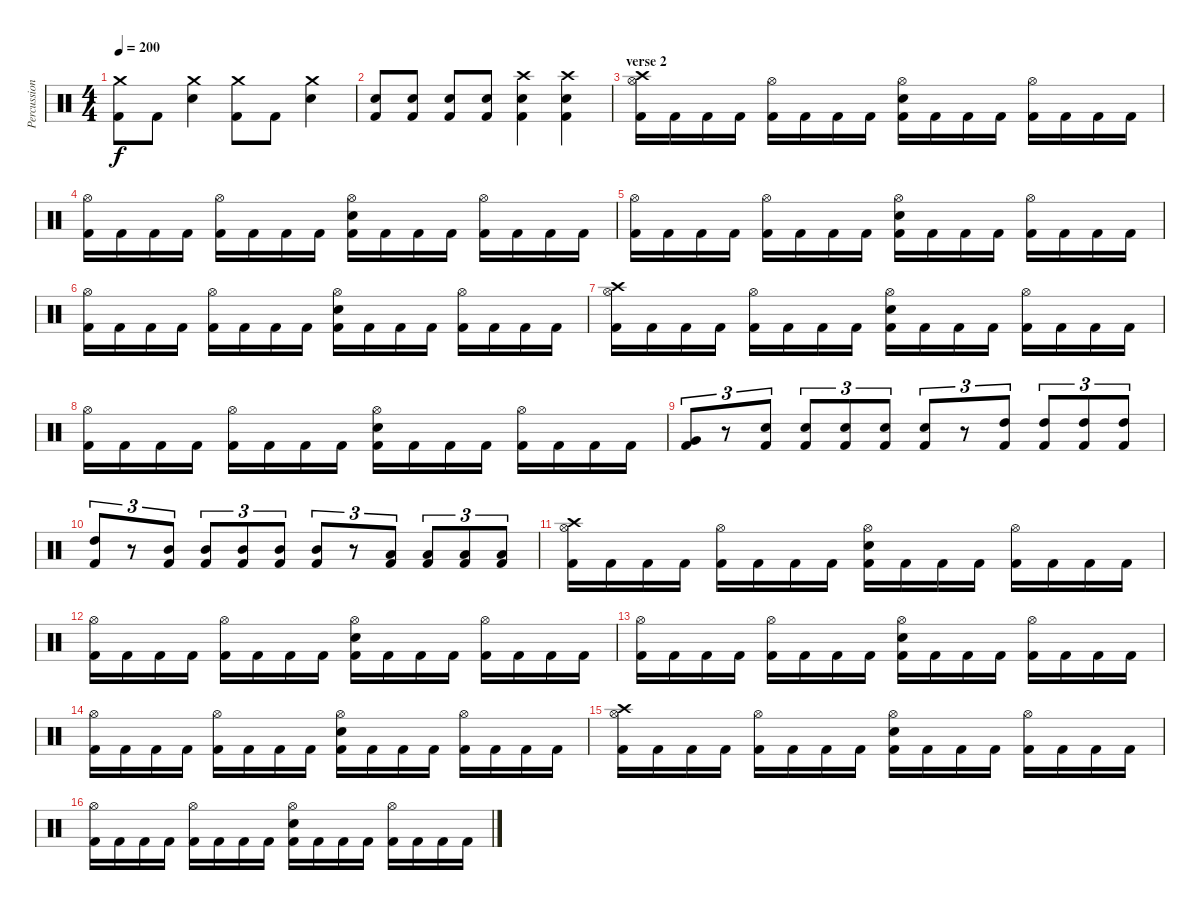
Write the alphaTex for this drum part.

\track ("Percussions" "Percussion") {instrument percussion}
\staff {score}
\articulation defaults
\ts (4 4)
\tempo 200
\clef neutral
\ks c
("Crash medium (hit)" "Kick (hit) 2").8{dy f} "Kick (hit) 2".8 ("Crash medium (hit)" "Electric Snare (hit)").4 ("Crash medium (hit)" "Kick (hit) 2").8 "Kick (hit) 2".8 ("Crash medium (hit)" "Electric Snare (hit)").4 |
("Electric Snare (hit)" "Kick (hit) 2").8 ("Electric Snare (hit)" "Kick (hit) 2").8 ("Electric Snare (hit)" "Kick (hit) 2").8 ("Electric Snare (hit)" "Kick (hit) 2").8 ("Crash high (hit)" "Electric Snare (hit)" "Kick (hit) 2").4 ("Crash high (hit)" "Electric Snare (hit)" "Kick (hit) 2").4 |
\section ("" "verse 2")
("Crash high (hit)" "Hi-Hat (open)" "Kick (hit) 2").16 "Kick (hit) 2".16 "Kick (hit) 2".16 "Kick (hit) 2".16 ("Hi-Hat (open)" "Kick (hit) 2").16 "Kick (hit) 2".16 "Kick (hit) 2".16 "Kick (hit) 2".16 ("Hi-Hat (open)" "Electric Snare (hit)" "Kick (hit) 2").16 "Kick (hit) 2".16 "Kick (hit) 2".16 "Kick (hit) 2".16 ("Hi-Hat (open)" "Kick (hit) 2").16 "Kick (hit) 2".16 "Kick (hit) 2".16 "Kick (hit) 2".16 |
("Hi-Hat (open)" "Kick (hit) 2").16 "Kick (hit) 2".16 "Kick (hit) 2".16 "Kick (hit) 2".16 ("Hi-Hat (open)" "Kick (hit) 2").16 "Kick (hit) 2".16 "Kick (hit) 2".16 "Kick (hit) 2".16 ("Hi-Hat (open)" "Electric Snare (hit)" "Kick (hit) 2").16 "Kick (hit) 2".16 "Kick (hit) 2".16 "Kick (hit) 2".16 ("Hi-Hat (open)" "Kick (hit) 2").16 "Kick (hit) 2".16 "Kick (hit) 2".16 "Kick (hit) 2".16 |
("Hi-Hat (open)" "Kick (hit) 2").16 "Kick (hit) 2".16 "Kick (hit) 2".16 "Kick (hit) 2".16 ("Hi-Hat (open)" "Kick (hit) 2").16 "Kick (hit) 2".16 "Kick (hit) 2".16 "Kick (hit) 2".16 ("Hi-Hat (open)" "Electric Snare (hit)" "Kick (hit) 2").16 "Kick (hit) 2".16 "Kick (hit) 2".16 "Kick (hit) 2".16 ("Hi-Hat (open)" "Kick (hit) 2").16 "Kick (hit) 2".16 "Kick (hit) 2".16 "Kick (hit) 2".16 |
("Hi-Hat (open)" "Kick (hit) 2").16 "Kick (hit) 2".16 "Kick (hit) 2".16 "Kick (hit) 2".16 ("Hi-Hat (open)" "Kick (hit) 2").16 "Kick (hit) 2".16 "Kick (hit) 2".16 "Kick (hit) 2".16 ("Hi-Hat (open)" "Electric Snare (hit)" "Kick (hit) 2").16 "Kick (hit) 2".16 "Kick (hit) 2".16 "Kick (hit) 2".16 ("Hi-Hat (open)" "Kick (hit) 2").16 "Kick (hit) 2".16 "Kick (hit) 2".16 "Kick (hit) 2".16 |
("Crash high (hit)" "Hi-Hat (open)" "Kick (hit) 2").16 "Kick (hit) 2".16 "Kick (hit) 2".16 "Kick (hit) 2".16 ("Hi-Hat (open)" "Kick (hit) 2").16 "Kick (hit) 2".16 "Kick (hit) 2".16 "Kick (hit) 2".16 ("Hi-Hat (open)" "Electric Snare (hit)" "Kick (hit) 2").16 "Kick (hit) 2".16 "Kick (hit) 2".16 "Kick (hit) 2".16 ("Hi-Hat (open)" "Kick (hit) 2").16 "Kick (hit) 2".16 "Kick (hit) 2".16 "Kick (hit) 2".16 |
("Hi-Hat (open)" "Kick (hit) 2").16 "Kick (hit) 2".16 "Kick (hit) 2".16 "Kick (hit) 2".16 ("Hi-Hat (open)" "Kick (hit) 2").16 "Kick (hit) 2".16 "Kick (hit) 2".16 "Kick (hit) 2".16 ("Hi-Hat (open)" "Electric Snare (hit)" "Kick (hit) 2").16 "Kick (hit) 2".16 "Kick (hit) 2".16 "Kick (hit) 2".16 ("Hi-Hat (open)" "Kick (hit) 2").16 "Kick (hit) 2".16 "Kick (hit) 2".16 "Kick (hit) 2".16 |
("Very Low Tom (hit)" "Kick (hit) 2").8{tu (3 2)} r.8{tu (3 2)} ("Electric Snare (hit)" "Kick (hit) 2").8{tu (3 2)} ("Electric Snare (hit)" "Kick (hit) 2").8{tu (3 2)} ("Electric Snare (hit)" "Kick (hit) 2").8{tu (3 2)} ("Electric Snare (hit)" "Kick (hit) 2").8{tu (3 2)} ("Electric Snare (hit)" "Kick (hit) 2").8{tu (3 2)} r.8{tu (3 2)} ("High Tom (hit)" "Kick (hit) 2").8{tu (3 2)} ("High Tom (hit)" "Kick (hit) 2").8{tu (3 2)} ("High Tom (hit)" "Kick (hit) 2").8{tu (3 2)} ("High Tom (hit)" "Kick (hit) 2").8{tu (3 2)} |
("High Tom (hit)" "Kick (hit) 2").8{tu (3 2)} r.8{tu (3 2)} ("Mid Tom (hit)" "Kick (hit) 2").8{tu (3 2)} ("Mid Tom (hit)" "Kick (hit) 2").8{tu (3 2)} ("Mid Tom (hit)" "Kick (hit) 2").8{tu (3 2)} ("Mid Tom (hit)" "Kick (hit) 2").8{tu (3 2)} ("Mid Tom (hit)" "Kick (hit) 2").8{tu (3 2)} r.8{tu (3 2)} ("Low Tom (hit)" "Kick (hit) 2").8{tu (3 2)} ("Low Tom (hit)" "Kick (hit) 2").8{tu (3 2)} ("Low Tom (hit)" "Kick (hit) 2").8{tu (3 2)} ("Low Tom (hit)" "Kick (hit) 2").8{tu (3 2)} |
("Crash high (hit)" "Hi-Hat (open)" "Kick (hit) 2").16 "Kick (hit) 2".16 "Kick (hit) 2".16 "Kick (hit) 2".16 ("Hi-Hat (open)" "Kick (hit) 2").16 "Kick (hit) 2".16 "Kick (hit) 2".16 "Kick (hit) 2".16 ("Hi-Hat (open)" "Electric Snare (hit)" "Kick (hit) 2").16 "Kick (hit) 2".16 "Kick (hit) 2".16 "Kick (hit) 2".16 ("Hi-Hat (open)" "Kick (hit) 2").16 "Kick (hit) 2".16 "Kick (hit) 2".16 "Kick (hit) 2".16 |
("Hi-Hat (open)" "Kick (hit) 2").16 "Kick (hit) 2".16 "Kick (hit) 2".16 "Kick (hit) 2".16 ("Hi-Hat (open)" "Kick (hit) 2").16 "Kick (hit) 2".16 "Kick (hit) 2".16 "Kick (hit) 2".16 ("Hi-Hat (open)" "Electric Snare (hit)" "Kick (hit) 2").16 "Kick (hit) 2".16 "Kick (hit) 2".16 "Kick (hit) 2".16 ("Hi-Hat (open)" "Kick (hit) 2").16 "Kick (hit) 2".16 "Kick (hit) 2".16 "Kick (hit) 2".16 |
("Hi-Hat (open)" "Kick (hit) 2").16 "Kick (hit) 2".16 "Kick (hit) 2".16 "Kick (hit) 2".16 ("Hi-Hat (open)" "Kick (hit) 2").16 "Kick (hit) 2".16 "Kick (hit) 2".16 "Kick (hit) 2".16 ("Hi-Hat (open)" "Electric Snare (hit)" "Kick (hit) 2").16 "Kick (hit) 2".16 "Kick (hit) 2".16 "Kick (hit) 2".16 ("Hi-Hat (open)" "Kick (hit) 2").16 "Kick (hit) 2".16 "Kick (hit) 2".16 "Kick (hit) 2".16 |
("Hi-Hat (open)" "Kick (hit) 2").16 "Kick (hit) 2".16 "Kick (hit) 2".16 "Kick (hit) 2".16 ("Hi-Hat (open)" "Kick (hit) 2").16 "Kick (hit) 2".16 "Kick (hit) 2".16 "Kick (hit) 2".16 ("Hi-Hat (open)" "Electric Snare (hit)" "Kick (hit) 2").16 "Kick (hit) 2".16 "Kick (hit) 2".16 "Kick (hit) 2".16 ("Hi-Hat (open)" "Kick (hit) 2").16 "Kick (hit) 2".16 "Kick (hit) 2".16 "Kick (hit) 2".16 |
("Crash high (hit)" "Hi-Hat (open)" "Kick (hit) 2").16 "Kick (hit) 2".16 "Kick (hit) 2".16 "Kick (hit) 2".16 ("Hi-Hat (open)" "Kick (hit) 2").16 "Kick (hit) 2".16 "Kick (hit) 2".16 "Kick (hit) 2".16 ("Hi-Hat (open)" "Electric Snare (hit)" "Kick (hit) 2").16 "Kick (hit) 2".16 "Kick (hit) 2".16 "Kick (hit) 2".16 ("Hi-Hat (open)" "Kick (hit) 2").16 "Kick (hit) 2".16 "Kick (hit) 2".16 "Kick (hit) 2".16 |
("Hi-Hat (open)" "Kick (hit) 2").16 "Kick (hit) 2".16 "Kick (hit) 2".16 "Kick (hit) 2".16 ("Hi-Hat (open)" "Kick (hit) 2").16 "Kick (hit) 2".16 "Kick (hit) 2".16 "Kick (hit) 2".16 ("Hi-Hat (open)" "Electric Snare (hit)" "Kick (hit) 2").16 "Kick (hit) 2".16 "Kick (hit) 2".16 "Kick (hit) 2".16 ("Hi-Hat (open)" "Kick (hit) 2").16 "Kick (hit) 2".16 "Kick (hit) 2".16 "Kick (hit) 2".16
